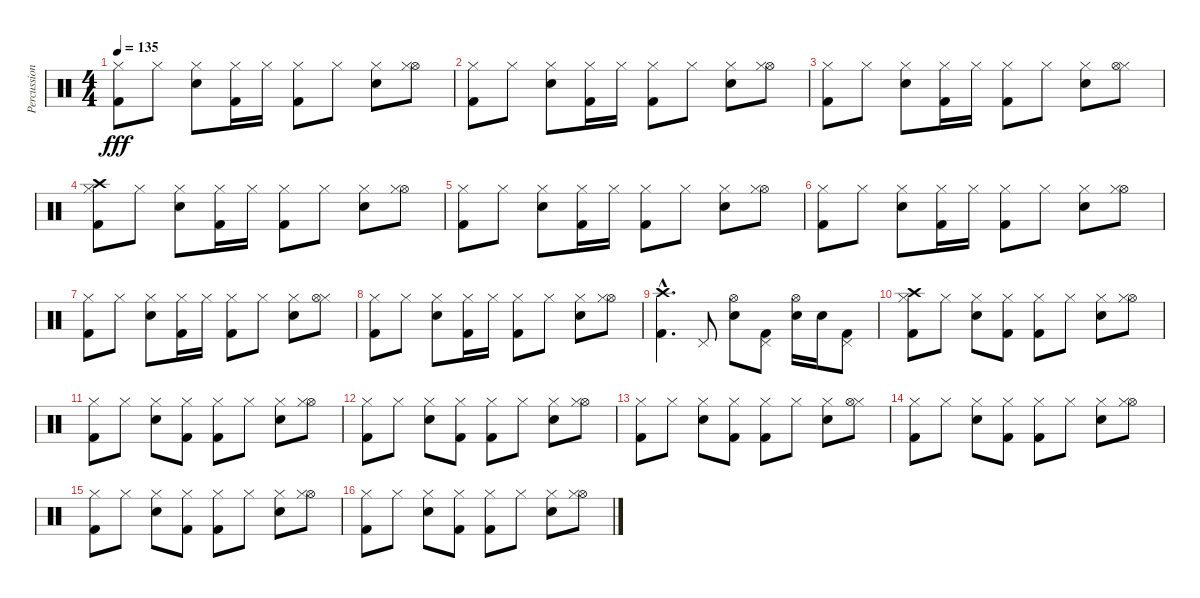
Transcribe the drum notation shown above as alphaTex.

\track ("Percussion" "Percussion") {instrument percussion}
\staff {score}
\articulation defaults
\ts (4 4)
\tempo 135
\clef neutral
\ks c
("Hi-Hat (closed)" "Kick (hit) 2").8{dy fff} "Hi-Hat (closed)".8 ("Hi-Hat (closed)" "Snare (hit) 2").8 ("Kick (hit) 2" "Hi-Hat (closed)").16 "Hi-Hat (closed)".16 ("Hi-Hat (closed)" "Kick (hit) 2").8 "Hi-Hat (closed)".8 ("Hi-Hat (closed)" "Snare (hit) 2").8 ("Hi-Hat (open)" "Hi-Hat (closed)").8 |
("Hi-Hat (closed)" "Kick (hit) 2").8 "Hi-Hat (closed)".8 ("Snare (hit) 2" "Hi-Hat (closed)").8 ("Hi-Hat (closed)" "Kick (hit) 2").16 "Hi-Hat (closed)".16 ("Hi-Hat (closed)" "Kick (hit) 2").8 "Hi-Hat (closed)".8 ("Hi-Hat (closed)" "Snare (hit) 2").8 ("Hi-Hat (open)" "Hi-Hat (closed)").8 |
("Hi-Hat (closed)" "Kick (hit) 2").8 "Hi-Hat (closed)".8 ("Hi-Hat (closed)" "Snare (hit) 2").8 ("Kick (hit) 2" "Hi-Hat (closed)").16 "Hi-Hat (closed)".16 ("Hi-Hat (closed)" "Kick (hit) 2").8 "Hi-Hat (closed)".8 ("Snare (hit) 2" "Hi-Hat (closed)").8 ("Hi-Hat (closed)" "Hi-Hat (open)").8 |
("Crash high (hit)" "Hi-Hat (closed)" "Kick (hit) 2").8 "Hi-Hat (closed)".8 ("Hi-Hat (closed)" "Snare (hit) 2").8 ("Hi-Hat (closed)" "Kick (hit) 2").16 "Hi-Hat (closed)".16 ("Hi-Hat (closed)" "Kick (hit) 2").8 "Hi-Hat (closed)".8 ("Snare (hit) 2" "Hi-Hat (closed)").8 ("Hi-Hat (open)" "Hi-Hat (closed)").8 |
("Hi-Hat (closed)" "Kick (hit) 2").8 "Hi-Hat (closed)".8 ("Hi-Hat (closed)" "Snare (hit) 2").8 ("Kick (hit) 2" "Hi-Hat (closed)").16 "Hi-Hat (closed)".16 ("Hi-Hat (closed)" "Kick (hit) 2").8 "Hi-Hat (closed)".8 ("Hi-Hat (closed)" "Snare (hit) 2").8 ("Hi-Hat (open)" "Hi-Hat (closed)").8 |
("Hi-Hat (closed)" "Kick (hit) 2").8 "Hi-Hat (closed)".8 ("Snare (hit) 2" "Hi-Hat (closed)").8 ("Hi-Hat (closed)" "Kick (hit) 2").16 "Hi-Hat (closed)".16 ("Hi-Hat (closed)" "Kick (hit) 2").8 "Hi-Hat (closed)".8 ("Hi-Hat (closed)" "Snare (hit) 2").8 ("Hi-Hat (open)" "Hi-Hat (closed)").8 |
("Hi-Hat (closed)" "Kick (hit) 2").8 "Hi-Hat (closed)".8 ("Hi-Hat (closed)" "Snare (hit) 2").8 ("Kick (hit) 2" "Hi-Hat (closed)").16 "Hi-Hat (closed)".16 ("Hi-Hat (closed)" "Kick (hit) 2").8 "Hi-Hat (closed)".8 ("Snare (hit) 2" "Hi-Hat (closed)").8 ("Hi-Hat (closed)" "Hi-Hat (open)").8 |
("Hi-Hat (closed)" "Kick (hit) 2").8 "Hi-Hat (closed)".8 ("Hi-Hat (closed)" "Snare (hit) 2").8 ("Hi-Hat (closed)" "Kick (hit) 2").16 "Hi-Hat (closed)".16 ("Hi-Hat (closed)" "Kick (hit) 2").8 "Hi-Hat (closed)".8 ("Snare (hit) 2" "Hi-Hat (closed)").8 ("Hi-Hat (open)" "Hi-Hat (closed)").8 |
("Crash high (hit)"{hac} "Kick (hit) 2"{hac}).4{d} "Pedal Hi-Hat (hit)".8 ("Snare (hit) 2" "Hi-Hat (open)").8 ("Kick (hit) 2" "Pedal Hi-Hat (hit)").8 ("Hi-Hat (open)" "Snare (hit) 2").16 "Snare (hit) 2".16 ("Kick (hit) 2" "Pedal Hi-Hat (hit)").8 |
("Crash high (hit)" "Hi-Hat (closed)" "Kick (hit) 2").8 "Hi-Hat (closed)".8 ("Hi-Hat (closed)" "Snare (hit) 2").8 ("Hi-Hat (closed)" "Kick (hit) 2").8 ("Hi-Hat (closed)" "Kick (hit) 2").8 "Hi-Hat (closed)".8 ("Snare (hit) 2" "Hi-Hat (closed)").8 ("Hi-Hat (open)" "Hi-Hat (closed)").8 |
("Hi-Hat (closed)" "Kick (hit) 2").8 "Hi-Hat (closed)".8 ("Hi-Hat (closed)" "Snare (hit) 2").8 ("Kick (hit) 2" "Hi-Hat (closed)").8 ("Hi-Hat (closed)" "Kick (hit) 2").8 "Hi-Hat (closed)".8 ("Hi-Hat (closed)" "Snare (hit) 2").8 ("Hi-Hat (open)" "Hi-Hat (closed)").8 |
("Hi-Hat (closed)" "Kick (hit) 2").8 "Hi-Hat (closed)".8 ("Snare (hit) 2" "Hi-Hat (closed)").8 ("Hi-Hat (closed)" "Kick (hit) 2").8 ("Hi-Hat (closed)" "Kick (hit) 2").8 "Hi-Hat (closed)".8 ("Hi-Hat (closed)" "Snare (hit) 2").8 ("Hi-Hat (open)" "Hi-Hat (closed)").8 |
("Hi-Hat (closed)" "Kick (hit) 2").8 "Hi-Hat (closed)".8 ("Hi-Hat (closed)" "Snare (hit) 2").8 ("Kick (hit) 2" "Hi-Hat (closed)").8 ("Hi-Hat (closed)" "Kick (hit) 2").8 "Hi-Hat (closed)".8 ("Snare (hit) 2" "Hi-Hat (closed)").8 ("Hi-Hat (closed)" "Hi-Hat (open)").8 |
("Hi-Hat (closed)" "Kick (hit) 2").8 "Hi-Hat (closed)".8 ("Hi-Hat (closed)" "Snare (hit) 2").8 ("Hi-Hat (closed)" "Kick (hit) 2").8 ("Hi-Hat (closed)" "Kick (hit) 2").8 "Hi-Hat (closed)".8 ("Snare (hit) 2" "Hi-Hat (closed)").8 ("Hi-Hat (open)" "Hi-Hat (closed)").8 |
("Hi-Hat (closed)" "Kick (hit) 2").8 "Hi-Hat (closed)".8 ("Hi-Hat (closed)" "Snare (hit) 2").8 ("Kick (hit) 2" "Hi-Hat (closed)").8 ("Hi-Hat (closed)" "Kick (hit) 2").8 "Hi-Hat (closed)".8 ("Hi-Hat (closed)" "Snare (hit) 2").8 ("Hi-Hat (open)" "Hi-Hat (closed)").8 |
("Hi-Hat (closed)" "Kick (hit) 2").8 "Hi-Hat (closed)".8 ("Snare (hit) 2" "Hi-Hat (closed)").8 ("Hi-Hat (closed)" "Kick (hit) 2").8 ("Hi-Hat (closed)" "Kick (hit) 2").8 "Hi-Hat (closed)".8 ("Hi-Hat (closed)" "Snare (hit) 2").8 ("Hi-Hat (open)" "Hi-Hat (closed)").8
